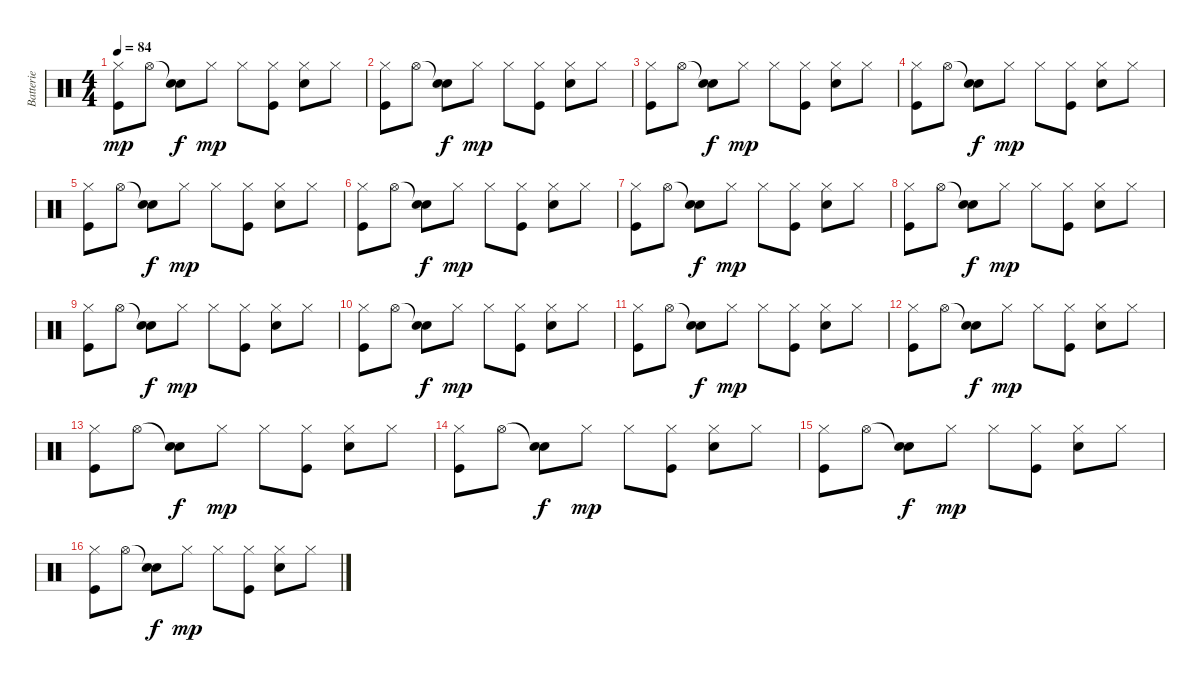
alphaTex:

\track ("Batterie" "Batterie") {instrument percussion}
\staff {score}
\articulation defaults
\ts (4 4)
\tempo 84
\clef neutral
\ks c
("Hi-Hat (closed)" "Kick (hit)").8{dy mp} "Hi-Hat (open)".8 ("Snare (hit)"{t} "Snare (hit) 2").8{dy f} "Hi-Hat (closed)".8{dy mp} "Hi-Hat (closed)".8 ("Hi-Hat (closed)" "Kick (hit)").8 ("Hi-Hat (closed)" "Snare (hit) 2").8 "Hi-Hat (closed)".8 |
("Hi-Hat (closed)" "Kick (hit)").8 "Hi-Hat (open)".8 ("Snare (hit)"{t} "Snare (hit) 2").8{dy f} "Hi-Hat (closed)".8{dy mp} "Hi-Hat (closed)".8 ("Hi-Hat (closed)" "Kick (hit)").8 ("Hi-Hat (closed)" "Snare (hit) 2").8 "Hi-Hat (closed)".8 |
("Hi-Hat (closed)" "Kick (hit)").8 "Hi-Hat (open)".8 ("Snare (hit)"{t} "Snare (hit) 2").8{dy f} "Hi-Hat (closed)".8{dy mp} "Hi-Hat (closed)".8 ("Hi-Hat (closed)" "Kick (hit)").8 ("Hi-Hat (closed)" "Snare (hit) 2").8 "Hi-Hat (closed)".8 |
("Hi-Hat (closed)" "Kick (hit)").8 "Hi-Hat (open)".8 ("Snare (hit)"{t} "Snare (hit) 2").8{dy f} "Hi-Hat (closed)".8{dy mp} "Hi-Hat (closed)".8 ("Hi-Hat (closed)" "Kick (hit)").8 ("Hi-Hat (closed)" "Snare (hit) 2").8 "Hi-Hat (closed)".8 |
("Hi-Hat (closed)" "Kick (hit)").8 "Hi-Hat (open)".8 ("Snare (hit)"{t} "Snare (hit) 2").8{dy f} "Hi-Hat (closed)".8{dy mp} "Hi-Hat (closed)".8 ("Hi-Hat (closed)" "Kick (hit)").8 ("Hi-Hat (closed)" "Snare (hit) 2").8 "Hi-Hat (closed)".8 |
("Hi-Hat (closed)" "Kick (hit)").8 "Hi-Hat (open)".8 ("Snare (hit)"{t} "Snare (hit) 2").8{dy f} "Hi-Hat (closed)".8{dy mp} "Hi-Hat (closed)".8 ("Hi-Hat (closed)" "Kick (hit)").8 ("Hi-Hat (closed)" "Snare (hit) 2").8 "Hi-Hat (closed)".8 |
("Hi-Hat (closed)" "Kick (hit)").8 "Hi-Hat (open)".8 ("Snare (hit)"{t} "Snare (hit) 2").8{dy f} "Hi-Hat (closed)".8{dy mp} "Hi-Hat (closed)".8 ("Hi-Hat (closed)" "Kick (hit)").8 ("Hi-Hat (closed)" "Snare (hit) 2").8 "Hi-Hat (closed)".8 |
("Hi-Hat (closed)" "Kick (hit)").8 "Hi-Hat (open)".8 ("Snare (hit)"{t} "Snare (hit) 2").8{dy f} "Hi-Hat (closed)".8{dy mp} "Hi-Hat (closed)".8 ("Hi-Hat (closed)" "Kick (hit)").8 ("Hi-Hat (closed)" "Snare (hit) 2").8 "Hi-Hat (closed)".8 |
("Hi-Hat (closed)" "Kick (hit)").8 "Hi-Hat (open)".8 ("Snare (hit)"{t} "Snare (hit) 2").8{dy f} "Hi-Hat (closed)".8{dy mp} "Hi-Hat (closed)".8 ("Hi-Hat (closed)" "Kick (hit)").8 ("Hi-Hat (closed)" "Snare (hit) 2").8 "Hi-Hat (closed)".8 |
("Hi-Hat (closed)" "Kick (hit)").8 "Hi-Hat (open)".8 ("Snare (hit)"{t} "Snare (hit) 2").8{dy f} "Hi-Hat (closed)".8{dy mp} "Hi-Hat (closed)".8 ("Hi-Hat (closed)" "Kick (hit)").8 ("Hi-Hat (closed)" "Snare (hit) 2").8 "Hi-Hat (closed)".8 |
("Hi-Hat (closed)" "Kick (hit)").8 "Hi-Hat (open)".8 ("Snare (hit)"{t} "Snare (hit) 2").8{dy f} "Hi-Hat (closed)".8{dy mp} "Hi-Hat (closed)".8 ("Hi-Hat (closed)" "Kick (hit)").8 ("Hi-Hat (closed)" "Snare (hit) 2").8 "Hi-Hat (closed)".8 |
("Hi-Hat (closed)" "Kick (hit)").8 "Hi-Hat (open)".8 ("Snare (hit)"{t} "Snare (hit) 2").8{dy f} "Hi-Hat (closed)".8{dy mp} "Hi-Hat (closed)".8 ("Hi-Hat (closed)" "Kick (hit)").8 ("Hi-Hat (closed)" "Snare (hit) 2").8 "Hi-Hat (closed)".8 |
("Hi-Hat (closed)" "Kick (hit)").8 "Hi-Hat (open)".8 ("Snare (hit)"{t} "Snare (hit) 2").8{dy f} "Hi-Hat (closed)".8{dy mp} "Hi-Hat (closed)".8 ("Hi-Hat (closed)" "Kick (hit)").8 ("Hi-Hat (closed)" "Snare (hit) 2").8 "Hi-Hat (closed)".8 |
("Hi-Hat (closed)" "Kick (hit)").8 "Hi-Hat (open)".8 ("Snare (hit)"{t} "Snare (hit) 2").8{dy f} "Hi-Hat (closed)".8{dy mp} "Hi-Hat (closed)".8 ("Hi-Hat (closed)" "Kick (hit)").8 ("Hi-Hat (closed)" "Snare (hit) 2").8 "Hi-Hat (closed)".8 |
("Hi-Hat (closed)" "Kick (hit)").8 "Hi-Hat (open)".8 ("Snare (hit)"{t} "Snare (hit) 2").8{dy f} "Hi-Hat (closed)".8{dy mp} "Hi-Hat (closed)".8 ("Hi-Hat (closed)" "Kick (hit)").8 ("Hi-Hat (closed)" "Snare (hit) 2").8 "Hi-Hat (closed)".8 |
("Hi-Hat (closed)" "Kick (hit)").8 "Hi-Hat (open)".8 ("Snare (hit)"{t} "Snare (hit) 2").8{dy f} "Hi-Hat (closed)".8{dy mp} "Hi-Hat (closed)".8 ("Hi-Hat (closed)" "Kick (hit)").8 ("Hi-Hat (closed)" "Snare (hit) 2").8 "Hi-Hat (closed)".8
